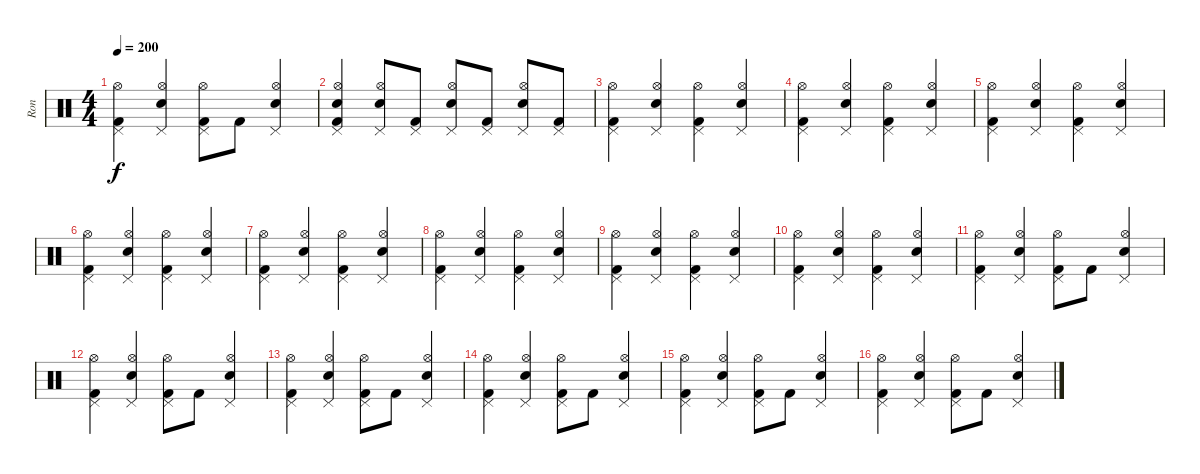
\track ("Ron" "Ron") {instrument percussion}
\staff {score}
\articulation defaults
\ts (4 4)
\tempo 200
\clef neutral
\ks c
("Pedal Hi-Hat (hit)" "Kick (hit) 2" "Hi-Hat (open)").4{dy f} ("Electric Snare (hit)" "Pedal Hi-Hat (hit)" "Hi-Hat (open)").4 ("Pedal Hi-Hat (hit)" "Kick (hit) 2" "Hi-Hat (open)").8 "Kick (hit) 2".8 ("Electric Snare (hit)" "Pedal Hi-Hat (hit)" "Hi-Hat (open)").4 |
("Electric Snare (hit)" "Kick (hit) 2" "Pedal Hi-Hat (hit)" "Hi-Hat (open)").4 ("Electric Snare (hit)" "Pedal Hi-Hat (hit)" "Hi-Hat (open)").8 ("Kick (hit) 2" "Pedal Hi-Hat (hit)").8 ("Electric Snare (hit)" "Pedal Hi-Hat (hit)" "Hi-Hat (open)").8 ("Kick (hit) 2" "Pedal Hi-Hat (hit)").8 ("Electric Snare (hit)" "Pedal Hi-Hat (hit)" "Hi-Hat (open)").8 ("Kick (hit) 2" "Pedal Hi-Hat (hit)").8 |
("Pedal Hi-Hat (hit)" "Kick (hit) 2" "Hi-Hat (open)").4 ("Pedal Hi-Hat (hit)" "Electric Snare (hit)" "Hi-Hat (open)").4 ("Pedal Hi-Hat (hit)" "Kick (hit) 2" "Hi-Hat (open)").4 ("Pedal Hi-Hat (hit)" "Electric Snare (hit)" "Hi-Hat (open)").4 |
("Pedal Hi-Hat (hit)" "Kick (hit) 2" "Hi-Hat (open)").4 ("Pedal Hi-Hat (hit)" "Electric Snare (hit)" "Hi-Hat (open)").4 ("Pedal Hi-Hat (hit)" "Kick (hit) 2" "Hi-Hat (open)").4 ("Pedal Hi-Hat (hit)" "Electric Snare (hit)" "Hi-Hat (open)").4 |
("Pedal Hi-Hat (hit)" "Kick (hit) 2" "Hi-Hat (open)").4 ("Pedal Hi-Hat (hit)" "Electric Snare (hit)" "Hi-Hat (open)").4 ("Pedal Hi-Hat (hit)" "Kick (hit) 2" "Hi-Hat (open)").4 ("Pedal Hi-Hat (hit)" "Electric Snare (hit)" "Hi-Hat (open)").4 |
("Pedal Hi-Hat (hit)" "Kick (hit) 2" "Hi-Hat (open)").4 ("Pedal Hi-Hat (hit)" "Electric Snare (hit)" "Hi-Hat (open)").4 ("Pedal Hi-Hat (hit)" "Kick (hit) 2" "Hi-Hat (open)").4 ("Pedal Hi-Hat (hit)" "Electric Snare (hit)" "Hi-Hat (open)").4 |
("Pedal Hi-Hat (hit)" "Kick (hit) 2" "Hi-Hat (open)").4 ("Pedal Hi-Hat (hit)" "Electric Snare (hit)" "Hi-Hat (open)").4 ("Pedal Hi-Hat (hit)" "Kick (hit) 2" "Hi-Hat (open)").4 ("Pedal Hi-Hat (hit)" "Electric Snare (hit)" "Hi-Hat (open)").4 |
("Pedal Hi-Hat (hit)" "Kick (hit) 2" "Hi-Hat (open)").4 ("Pedal Hi-Hat (hit)" "Electric Snare (hit)" "Hi-Hat (open)").4 ("Pedal Hi-Hat (hit)" "Kick (hit) 2" "Hi-Hat (open)").4 ("Pedal Hi-Hat (hit)" "Electric Snare (hit)" "Hi-Hat (open)").4 |
("Pedal Hi-Hat (hit)" "Kick (hit) 2" "Hi-Hat (open)").4 ("Pedal Hi-Hat (hit)" "Electric Snare (hit)" "Hi-Hat (open)").4 ("Pedal Hi-Hat (hit)" "Kick (hit) 2" "Hi-Hat (open)").4 ("Pedal Hi-Hat (hit)" "Electric Snare (hit)" "Hi-Hat (open)").4 |
("Pedal Hi-Hat (hit)" "Kick (hit) 2" "Hi-Hat (open)").4 ("Pedal Hi-Hat (hit)" "Electric Snare (hit)" "Hi-Hat (open)").4 ("Pedal Hi-Hat (hit)" "Kick (hit) 2" "Hi-Hat (open)").4 ("Pedal Hi-Hat (hit)" "Electric Snare (hit)" "Hi-Hat (open)").4 |
("Pedal Hi-Hat (hit)" "Kick (hit) 2" "Hi-Hat (open)").4 ("Electric Snare (hit)" "Pedal Hi-Hat (hit)" "Hi-Hat (open)").4 ("Pedal Hi-Hat (hit)" "Kick (hit) 2" "Hi-Hat (open)").8 "Kick (hit) 2".8 ("Electric Snare (hit)" "Pedal Hi-Hat (hit)" "Hi-Hat (open)").4 |
("Pedal Hi-Hat (hit)" "Kick (hit) 2" "Hi-Hat (open)").4 ("Electric Snare (hit)" "Pedal Hi-Hat (hit)" "Hi-Hat (open)").4 ("Pedal Hi-Hat (hit)" "Kick (hit) 2" "Hi-Hat (open)").8 "Kick (hit) 2".8 ("Electric Snare (hit)" "Pedal Hi-Hat (hit)" "Hi-Hat (open)").4 |
("Pedal Hi-Hat (hit)" "Kick (hit) 2" "Hi-Hat (open)").4 ("Electric Snare (hit)" "Pedal Hi-Hat (hit)" "Hi-Hat (open)").4 ("Pedal Hi-Hat (hit)" "Kick (hit) 2" "Hi-Hat (open)").8 "Kick (hit) 2".8 ("Electric Snare (hit)" "Pedal Hi-Hat (hit)" "Hi-Hat (open)").4 |
("Pedal Hi-Hat (hit)" "Kick (hit) 2" "Hi-Hat (open)").4 ("Electric Snare (hit)" "Pedal Hi-Hat (hit)" "Hi-Hat (open)").4 ("Pedal Hi-Hat (hit)" "Kick (hit) 2" "Hi-Hat (open)").8 "Kick (hit) 2".8 ("Electric Snare (hit)" "Pedal Hi-Hat (hit)" "Hi-Hat (open)").4 |
("Pedal Hi-Hat (hit)" "Kick (hit) 2" "Hi-Hat (open)").4 ("Electric Snare (hit)" "Pedal Hi-Hat (hit)" "Hi-Hat (open)").4 ("Pedal Hi-Hat (hit)" "Kick (hit) 2" "Hi-Hat (open)").8 "Kick (hit) 2".8 ("Electric Snare (hit)" "Pedal Hi-Hat (hit)" "Hi-Hat (open)").4 |
("Pedal Hi-Hat (hit)" "Kick (hit) 2" "Hi-Hat (open)").4 ("Electric Snare (hit)" "Pedal Hi-Hat (hit)" "Hi-Hat (open)").4 ("Pedal Hi-Hat (hit)" "Kick (hit) 2" "Hi-Hat (open)").8 "Kick (hit) 2".8 ("Electric Snare (hit)" "Pedal Hi-Hat (hit)" "Hi-Hat (open)").4
